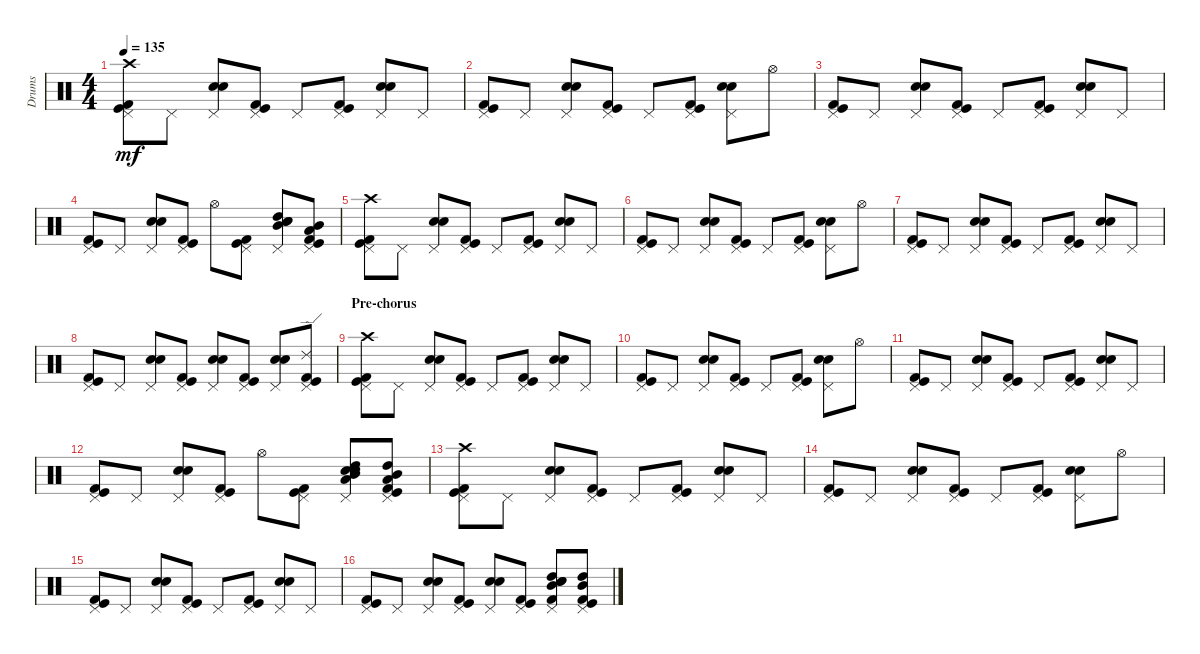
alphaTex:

\track ("Drums" "Drums") {instrument percussion}
\staff {score}
\articulation defaults
\ts (4 4)
\tempo 135
\clef neutral
\ks c
("Kick (hit) 2" "Pedal Hi-Hat (hit)" "Kick (hit)" "Crash high (hit)").8{dy mf} "Pedal Hi-Hat (hit)".8 ("Pedal Hi-Hat (hit)" "Electric Snare (hit)" "Snare (hit) 2").8 ("Kick (hit) 2" "Pedal Hi-Hat (hit)" "Kick (hit)").8 "Pedal Hi-Hat (hit)".8 ("Kick (hit) 2" "Pedal Hi-Hat (hit)" "Kick (hit)").8 ("Pedal Hi-Hat (hit)" "Electric Snare (hit)" "Snare (hit) 2").8 "Pedal Hi-Hat (hit)".8 |
("Kick (hit)" "Kick (hit) 2" "Pedal Hi-Hat (hit)").8 "Pedal Hi-Hat (hit)".8 ("Electric Snare (hit)" "Snare (hit) 2" "Pedal Hi-Hat (hit)").8 ("Kick (hit)" "Pedal Hi-Hat (hit)" "Kick (hit) 2").8 "Pedal Hi-Hat (hit)".8 ("Kick (hit)" "Pedal Hi-Hat (hit)" "Kick (hit) 2").8 ("Pedal Hi-Hat (hit)" "Snare (hit) 2" "Electric Snare (hit)").8 "Hi-Hat (open)".8 |
("Kick (hit) 2" "Kick (hit)" "Pedal Hi-Hat (hit)").8 "Pedal Hi-Hat (hit)".8 ("Electric Snare (hit)" "Snare (hit) 2" "Pedal Hi-Hat (hit)").8 ("Kick (hit) 2" "Kick (hit)" "Pedal Hi-Hat (hit)").8 "Pedal Hi-Hat (hit)".8 ("Kick (hit) 2" "Kick (hit)" "Pedal Hi-Hat (hit)").8 ("Electric Snare (hit)" "Snare (hit) 2" "Pedal Hi-Hat (hit)").8 "Pedal Hi-Hat (hit)".8 |
("Pedal Hi-Hat (hit)" "Kick (hit)" "Kick (hit) 2").8 "Pedal Hi-Hat (hit)".8 ("Electric Snare (hit)" "Snare (hit) 2" "Pedal Hi-Hat (hit)").8 ("Pedal Hi-Hat (hit)" "Kick (hit) 2" "Kick (hit)").8 "Hi-Hat (open)".8 ("Kick (hit)" "Kick (hit) 2" "Pedal Hi-Hat (hit)").8 ("High Tom (hit)" "Mid Tom (hit)" "Snare (hit) 2" "Electric Snare (hit)" "Pedal Hi-Hat (hit)").8 ("Low Tom (hit)" "Mid Tom (hit)" "Pedal Hi-Hat (hit)" "Kick (hit)" "Kick (hit) 2").8 |
("Pedal Hi-Hat (hit)" "Crash high (hit)" "Kick (hit) 2" "Kick (hit)").8 "Pedal Hi-Hat (hit)".8 ("Electric Snare (hit)" "Snare (hit) 2" "Pedal Hi-Hat (hit)").8 ("Kick (hit)" "Kick (hit) 2" "Pedal Hi-Hat (hit)").8 "Pedal Hi-Hat (hit)".8 ("Kick (hit)" "Pedal Hi-Hat (hit)" "Kick (hit) 2").8 ("Pedal Hi-Hat (hit)" "Electric Snare (hit)" "Snare (hit) 2").8 "Pedal Hi-Hat (hit)".8 |
("Pedal Hi-Hat (hit)" "Kick (hit)" "Kick (hit) 2").8 "Pedal Hi-Hat (hit)".8 ("Pedal Hi-Hat (hit)" "Snare (hit) 2" "Electric Snare (hit)").8 ("Pedal Hi-Hat (hit)" "Kick (hit)" "Kick (hit) 2").8 "Pedal Hi-Hat (hit)".8 ("Pedal Hi-Hat (hit)" "Kick (hit)" "Kick (hit) 2").8 ("Pedal Hi-Hat (hit)" "Snare (hit) 2" "Electric Snare (hit)").8 "Hi-Hat (open)".8 |
("Pedal Hi-Hat (hit)" "Kick (hit)" "Kick (hit) 2").8 "Pedal Hi-Hat (hit)".8 ("Pedal Hi-Hat (hit)" "Snare (hit) 2" "Electric Snare (hit)").8 ("Pedal Hi-Hat (hit)" "Kick (hit)" "Kick (hit) 2").8 "Pedal Hi-Hat (hit)".8 ("Pedal Hi-Hat (hit)" "Kick (hit)" "Kick (hit) 2").8 ("Pedal Hi-Hat (hit)" "Snare (hit) 2" "Electric Snare (hit)").8 "Pedal Hi-Hat (hit)".8 |
("Kick (hit) 2" "Kick (hit)" "Pedal Hi-Hat (hit)").8 "Pedal Hi-Hat (hit)".8 ("Electric Snare (hit)" "Snare (hit) 2" "Pedal Hi-Hat (hit)").8 ("Pedal Hi-Hat (hit)" "Kick (hit) 2" "Kick (hit)").8 ("Snare (hit) 2" "Electric Snare (hit)" "Pedal Hi-Hat (hit)").8 ("Kick (hit)" "Pedal Hi-Hat (hit)" "Kick (hit) 2").8 ("Snare (hit) 2" "Electric Snare (hit)" "Pedal Hi-Hat (hit)").8 ("Ride (edge) 2" "Pedal Hi-Hat (hit)" "Kick (hit) 2" "Kick (hit)").8 |
\section ("" "Pre-chorus")
("Crash high (hit)" "Pedal Hi-Hat (hit)" "Kick (hit)" "Kick (hit) 2").8 "Pedal Hi-Hat (hit)".8 ("Electric Snare (hit)" "Snare (hit) 2" "Pedal Hi-Hat (hit)").8 ("Pedal Hi-Hat (hit)" "Kick (hit) 2" "Kick (hit)").8 "Pedal Hi-Hat (hit)".8 ("Kick (hit)" "Kick (hit) 2" "Pedal Hi-Hat (hit)").8 ("Pedal Hi-Hat (hit)" "Snare (hit) 2" "Electric Snare (hit)").8 "Pedal Hi-Hat (hit)".8 |
("Kick (hit) 2" "Kick (hit)" "Pedal Hi-Hat (hit)").8 "Pedal Hi-Hat (hit)".8 ("Electric Snare (hit)" "Snare (hit) 2" "Pedal Hi-Hat (hit)").8 ("Kick (hit) 2" "Kick (hit)" "Pedal Hi-Hat (hit)").8 "Pedal Hi-Hat (hit)".8 ("Kick (hit) 2" "Kick (hit)" "Pedal Hi-Hat (hit)").8 ("Electric Snare (hit)" "Snare (hit) 2" "Pedal Hi-Hat (hit)").8 "Hi-Hat (open)".8 |
("Kick (hit) 2" "Kick (hit)" "Pedal Hi-Hat (hit)").8 "Pedal Hi-Hat (hit)".8 ("Electric Snare (hit)" "Snare (hit) 2" "Pedal Hi-Hat (hit)").8 ("Kick (hit) 2" "Kick (hit)" "Pedal Hi-Hat (hit)").8 "Pedal Hi-Hat (hit)".8 ("Kick (hit) 2" "Kick (hit)" "Pedal Hi-Hat (hit)").8 ("Electric Snare (hit)" "Snare (hit) 2" "Pedal Hi-Hat (hit)").8 "Pedal Hi-Hat (hit)".8 |
("Kick (hit)" "Kick (hit) 2" "Pedal Hi-Hat (hit)").8 "Pedal Hi-Hat (hit)".8 ("Snare (hit) 2" "Pedal Hi-Hat (hit)" "Electric Snare (hit)").8 ("Kick (hit) 2" "Kick (hit)" "Pedal Hi-Hat (hit)").8 "Hi-Hat (open)".8 ("Kick (hit)" "Pedal Hi-Hat (hit)" "Kick (hit) 2").8 ("Low Tom (hit)" "High Tom (hit)" "Mid Tom (hit)" "Snare (hit) 2" "Pedal Hi-Hat (hit)" "Electric Snare (hit)").8 ("Low Tom (hit)" "High Tom (hit)" "Mid Tom (hit)" "Kick (hit)" "Kick (hit) 2" "Pedal Hi-Hat (hit)").8 |
("Kick (hit) 2" "Kick (hit)" "Pedal Hi-Hat (hit)" "Crash high (hit)").8 "Pedal Hi-Hat (hit)".8 ("Pedal Hi-Hat (hit)" "Snare (hit) 2" "Electric Snare (hit)").8 ("Kick (hit)" "Kick (hit) 2" "Pedal Hi-Hat (hit)").8 "Pedal Hi-Hat (hit)".8 ("Pedal Hi-Hat (hit)" "Kick (hit) 2" "Kick (hit)").8 ("Electric Snare (hit)" "Snare (hit) 2" "Pedal Hi-Hat (hit)").8 "Pedal Hi-Hat (hit)".8 |
("Pedal Hi-Hat (hit)" "Kick (hit)" "Kick (hit) 2").8 "Pedal Hi-Hat (hit)".8 ("Pedal Hi-Hat (hit)" "Snare (hit) 2" "Electric Snare (hit)").8 ("Pedal Hi-Hat (hit)" "Kick (hit)" "Kick (hit) 2").8 "Pedal Hi-Hat (hit)".8 ("Pedal Hi-Hat (hit)" "Kick (hit)" "Kick (hit) 2").8 ("Pedal Hi-Hat (hit)" "Snare (hit) 2" "Electric Snare (hit)").8 "Hi-Hat (open)".8 |
("Pedal Hi-Hat (hit)" "Kick (hit)" "Kick (hit) 2").8 "Pedal Hi-Hat (hit)".8 ("Pedal Hi-Hat (hit)" "Snare (hit) 2" "Electric Snare (hit)").8 ("Pedal Hi-Hat (hit)" "Kick (hit)" "Kick (hit) 2").8 "Pedal Hi-Hat (hit)".8 ("Pedal Hi-Hat (hit)" "Kick (hit)" "Kick (hit) 2").8 ("Pedal Hi-Hat (hit)" "Snare (hit) 2" "Electric Snare (hit)").8 "Pedal Hi-Hat (hit)".8 |
("Kick (hit) 2" "Kick (hit)" "Pedal Hi-Hat (hit)").8 "Pedal Hi-Hat (hit)".8 ("Snare (hit) 2" "Pedal Hi-Hat (hit)" "Electric Snare (hit)").8 ("Kick (hit) 2" "Kick (hit)" "Pedal Hi-Hat (hit)").8 ("Snare (hit) 2" "Electric Snare (hit)" "Pedal Hi-Hat (hit)").8 ("Kick (hit)" "Pedal Hi-Hat (hit)" "Kick (hit) 2").8 ("Kick (hit) 2" "Mid Tom (hit)" "High Tom (hit)" "Pedal Hi-Hat (hit)" "Electric Snare (hit)" "Snare (hit) 2").8 ("High Tom (hit)" "Mid Tom (hit)" "Kick (hit)" "Kick (hit) 2" "Pedal Hi-Hat (hit)").8
